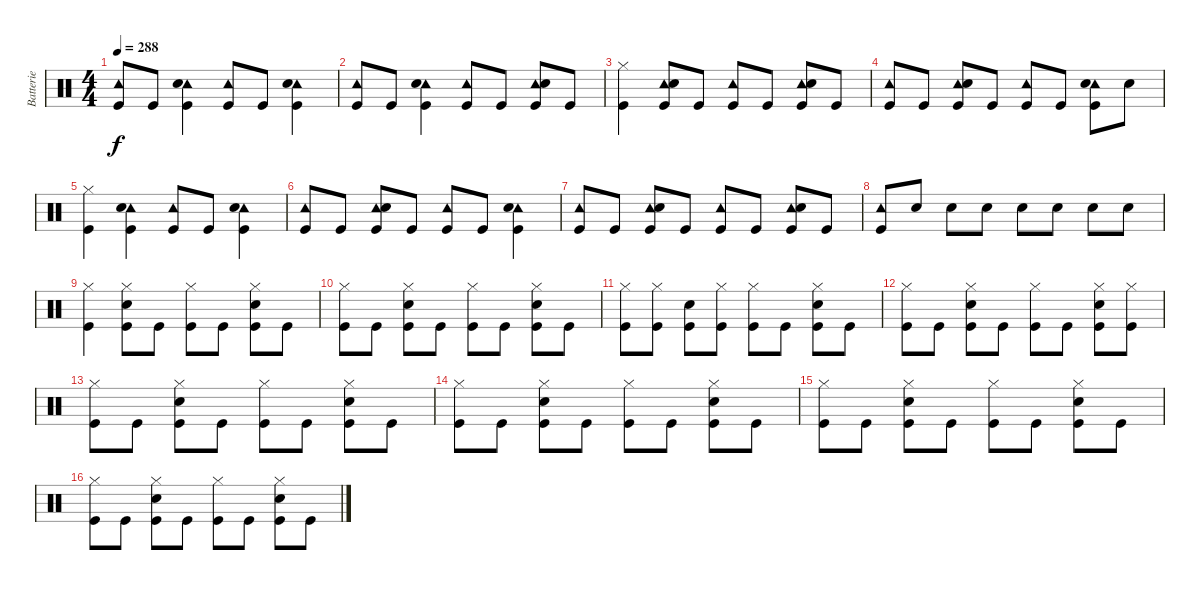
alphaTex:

\track ("Batterie" "Batterie") {instrument percussion}
\staff {score}
\articulation defaults
\ts (4 4)
\tempo 288
\clef neutral
\ks c
("Tambourine (hit)" "Kick (hit)").8{dy f} "Kick (hit)".8 ("Tambourine (hit)" "Snare (hit) 2" "Kick (hit)").4 ("Tambourine (hit)" "Kick (hit)").8 "Kick (hit)".8 ("Tambourine (hit)" "Snare (hit) 2" "Kick (hit)").4 |
("Tambourine (hit)" "Kick (hit)").8 "Kick (hit)".8 ("Tambourine (hit)" "Snare (hit) 2" "Kick (hit)").4 ("Tambourine (hit)" "Kick (hit)").8 "Kick (hit)".8 ("Tambourine (hit)" "Snare (hit) 2" "Kick (hit)").8 "Kick (hit)".8 |
("Hi-Hat (closed)" "Kick (hit)").4 ("Tambourine (hit)" "Snare (hit) 2" "Kick (hit)").8 "Kick (hit)".8 ("Tambourine (hit)" "Kick (hit)").8 "Kick (hit)".8 ("Tambourine (hit)" "Snare (hit) 2" "Kick (hit)").8 "Kick (hit)".8 |
("Tambourine (hit)" "Kick (hit)").8 "Kick (hit)".8 ("Tambourine (hit)" "Snare (hit) 2" "Kick (hit)").8 "Kick (hit)".8 ("Tambourine (hit)" "Kick (hit)").8 "Kick (hit)".8 ("Tambourine (hit)" "Snare (hit) 2" "Kick (hit)").8 "Snare (hit) 2".8 |
("Hi-Hat (closed)" "Kick (hit)").4 ("Tambourine (hit)" "Snare (hit) 2" "Kick (hit)").4 ("Tambourine (hit)" "Kick (hit)").8 "Kick (hit)".8 ("Tambourine (hit)" "Snare (hit) 2" "Kick (hit)").4 |
("Tambourine (hit)" "Kick (hit)").8 "Kick (hit)".8 ("Tambourine (hit)" "Snare (hit) 2" "Kick (hit)").8 "Kick (hit)".8 ("Tambourine (hit)" "Kick (hit)").8 "Kick (hit)".8 ("Tambourine (hit)" "Snare (hit) 2" "Kick (hit)").4 |
("Tambourine (hit)" "Kick (hit)").8 "Kick (hit)".8 ("Tambourine (hit)" "Snare (hit) 2" "Kick (hit)").8 "Kick (hit)".8 ("Tambourine (hit)" "Kick (hit)").8 "Kick (hit)".8 ("Tambourine (hit)" "Snare (hit) 2" "Kick (hit)").8 "Kick (hit)".8 |
("Tambourine (hit)" "Kick (hit)").8 "Snare (hit) 2".8 "Snare (hit) 2".8 "Snare (hit) 2".8 "Snare (hit) 2".8 "Snare (hit) 2".8 "Snare (hit) 2".8 "Snare (hit) 2".8 |
("Hi-Hat (closed)" "Kick (hit)").4 ("Hi-Hat (closed)" "Snare (hit) 2" "Kick (hit)").8 "Kick (hit)".8 ("Hi-Hat (closed)" "Kick (hit)").8 "Kick (hit)".8 ("Hi-Hat (closed)" "Snare (hit) 2" "Kick (hit)").8 "Kick (hit)".8 |
("Hi-Hat (closed)" "Kick (hit)").8 "Kick (hit)".8 ("Hi-Hat (closed)" "Snare (hit) 2" "Kick (hit)").8 "Kick (hit)".8 ("Hi-Hat (closed)" "Kick (hit)").8 "Kick (hit)".8 ("Hi-Hat (closed)" "Snare (hit) 2" "Kick (hit)").8 "Kick (hit)".8 |
("Hi-Hat (closed)" "Kick (hit)").8 ("Hi-Hat (closed)" "Kick (hit)").8 ("Snare (hit) 2" "Kick (hit)").8 ("Hi-Hat (closed)" "Kick (hit)").8 ("Hi-Hat (closed)" "Kick (hit)").8 "Kick (hit)".8 ("Hi-Hat (closed)" "Snare (hit) 2" "Kick (hit)").8 "Kick (hit)".8 |
("Hi-Hat (closed)" "Kick (hit)").8 "Kick (hit)".8 ("Hi-Hat (closed)" "Snare (hit) 2" "Kick (hit)").8 "Kick (hit)".8 ("Hi-Hat (closed)" "Kick (hit)").8 "Kick (hit)".8 ("Hi-Hat (closed)" "Snare (hit) 2" "Kick (hit)").8 ("Hi-Hat (closed)" "Kick (hit)").8 |
("Hi-Hat (closed)" "Kick (hit)").8 "Kick (hit)".8 ("Hi-Hat (closed)" "Snare (hit) 2" "Kick (hit)").8 "Kick (hit)".8 ("Hi-Hat (closed)" "Kick (hit)").8 "Kick (hit)".8 ("Hi-Hat (closed)" "Snare (hit) 2" "Kick (hit)").8 "Kick (hit)".8 |
("Hi-Hat (closed)" "Kick (hit)").8 "Kick (hit)".8 ("Hi-Hat (closed)" "Snare (hit) 2" "Kick (hit)").8 "Kick (hit)".8 ("Hi-Hat (closed)" "Kick (hit)").8 "Kick (hit)".8 ("Hi-Hat (closed)" "Snare (hit) 2" "Kick (hit)").8 "Kick (hit)".8 |
("Hi-Hat (closed)" "Kick (hit)").8 "Kick (hit)".8 ("Hi-Hat (closed)" "Snare (hit) 2" "Kick (hit)").8 "Kick (hit)".8 ("Hi-Hat (closed)" "Kick (hit)").8 "Kick (hit)".8 ("Hi-Hat (closed)" "Snare (hit) 2" "Kick (hit)").8 "Kick (hit)".8 |
("Hi-Hat (closed)" "Kick (hit)").8 "Kick (hit)".8 ("Hi-Hat (closed)" "Snare (hit) 2" "Kick (hit)").8 "Kick (hit)".8 ("Hi-Hat (closed)" "Kick (hit)").8 "Kick (hit)".8 ("Hi-Hat (closed)" "Snare (hit) 2" "Kick (hit)").8 "Kick (hit)".8
